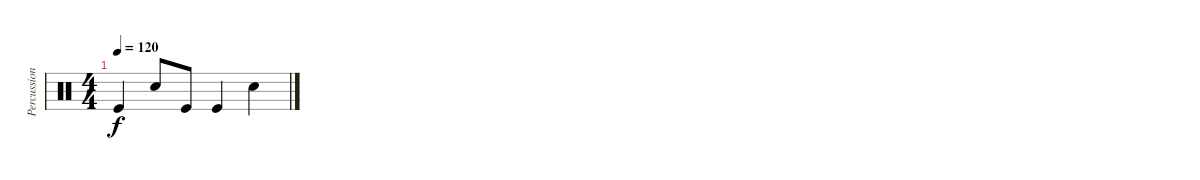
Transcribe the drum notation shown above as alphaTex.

\track ("Percussion" "Percussion") {instrument percussion}
\staff {score}
\articulation defaults
\ts (4 4)
\tempo 120
\clef neutral
\ks c "Kick (hit)".4{dy f} "Electric Snare (hit)".8 "Kick (hit)".8 "Kick (hit)".4 "Electric Snare (hit)".4
